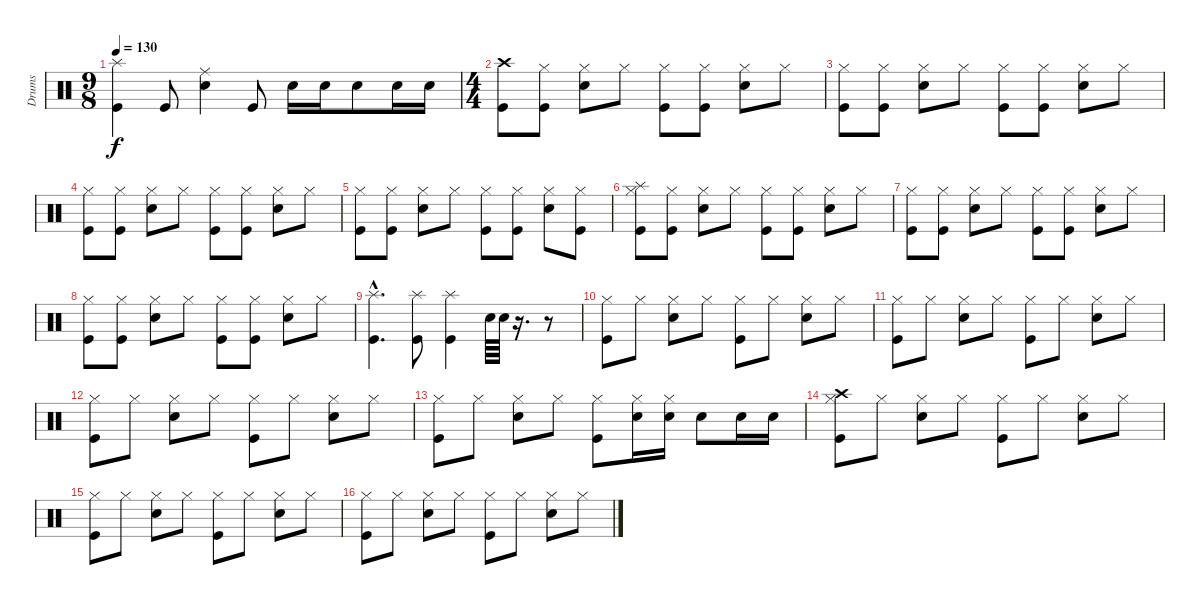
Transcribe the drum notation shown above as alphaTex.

\track ("Drums" "Drums") {instrument percussion}
\staff {score}
\articulation defaults
\ts (9 8)
\tempo 130
\clef neutral
\ks c
("Kick (hit)" "Splash (hit)").4{dy f} "Kick (hit)".8 ("Ride (middle)" "Snare (hit) 2").4 "Kick (hit)".8 "Snare (hit) 2".16 "Snare (hit) 2".16 "Snare (hit) 2".8 "Snare (hit) 2".16 "Snare (hit) 2".16 |
\ts (4 4)
("Kick (hit)" "Crash high (hit)").8 ("Hi-Hat (closed)" "Kick (hit)").8 ("Hi-Hat (closed)" "Snare (hit) 2").8 "Hi-Hat (closed)".8 ("Hi-Hat (closed)" "Kick (hit)").8 ("Hi-Hat (closed)" "Kick (hit)").8 ("Hi-Hat (closed)" "Snare (hit) 2").8 "Hi-Hat (closed)".8 |
("Hi-Hat (closed)" "Kick (hit)").8 ("Hi-Hat (closed)" "Kick (hit)").8 ("Hi-Hat (closed)" "Snare (hit) 2").8 "Hi-Hat (closed)".8 ("Hi-Hat (closed)" "Kick (hit)").8 ("Hi-Hat (closed)" "Kick (hit)").8 ("Hi-Hat (closed)" "Snare (hit) 2").8 "Hi-Hat (closed)".8 |
("Hi-Hat (closed)" "Kick (hit)").8 ("Hi-Hat (closed)" "Kick (hit)").8 ("Hi-Hat (closed)" "Snare (hit) 2").8 "Hi-Hat (closed)".8 ("Hi-Hat (closed)" "Kick (hit)").8 ("Hi-Hat (closed)" "Kick (hit)").8 ("Hi-Hat (closed)" "Snare (hit) 2").8 "Hi-Hat (closed)".8 |
("Hi-Hat (closed)" "Kick (hit)").8 ("Hi-Hat (closed)" "Kick (hit)").8 ("Hi-Hat (closed)" "Snare (hit) 2").8 "Hi-Hat (closed)".8 ("Hi-Hat (closed)" "Kick (hit)").8 ("Hi-Hat (closed)" "Kick (hit)").8 ("Hi-Hat (closed)" "Snare (hit) 2").8 ("Hi-Hat (closed)" "Kick (hit)").8 |
("Hi-Hat (closed)" "Kick (hit)" "Splash (hit)").8 ("Hi-Hat (closed)" "Kick (hit)").8 ("Hi-Hat (closed)" "Snare (hit) 2").8 "Hi-Hat (closed)".8 ("Hi-Hat (closed)" "Kick (hit)").8 ("Hi-Hat (closed)" "Kick (hit)").8 ("Hi-Hat (closed)" "Snare (hit) 2").8 "Hi-Hat (closed)".8 |
("Hi-Hat (closed)" "Kick (hit)").8 ("Hi-Hat (closed)" "Kick (hit)").8 ("Hi-Hat (closed)" "Snare (hit) 2").8 "Hi-Hat (closed)".8 ("Hi-Hat (closed)" "Kick (hit)").8 ("Hi-Hat (closed)" "Kick (hit)").8 ("Hi-Hat (closed)" "Snare (hit) 2").8 "Hi-Hat (closed)".8 |
("Hi-Hat (closed)" "Kick (hit)").8 ("Hi-Hat (closed)" "Kick (hit)").8 ("Hi-Hat (closed)" "Snare (hit) 2").8 "Hi-Hat (closed)".8 ("Hi-Hat (closed)" "Kick (hit)").8 ("Hi-Hat (closed)" "Kick (hit)").8 ("Hi-Hat (closed)" "Snare (hit) 2").8 "Hi-Hat (closed)".8 |
("Kick (hit)"{hac} "Splash (hit)"{hac}).4{d} ("Kick (hit)" "Splash (hit)").8 ("Kick (hit)" "Splash (hit)").4 "Snare (hit) 2".64 "Snare (hit) 2".64 r.16{d} r.8 |
("Hi-Hat (closed)" "Kick (hit)").8 "Hi-Hat (closed)".8 ("Hi-Hat (closed)" "Snare (hit) 2").8 "Hi-Hat (closed)".8 ("Hi-Hat (closed)" "Kick (hit)").8 "Hi-Hat (closed)".8 ("Hi-Hat (closed)" "Snare (hit) 2").8 "Hi-Hat (closed)".8 |
("Hi-Hat (closed)" "Kick (hit)").8 "Hi-Hat (closed)".8 ("Hi-Hat (closed)" "Snare (hit) 2").8 "Hi-Hat (closed)".8 ("Hi-Hat (closed)" "Kick (hit)").8 "Hi-Hat (closed)".8 ("Hi-Hat (closed)" "Snare (hit) 2").8 "Hi-Hat (closed)".8 |
("Hi-Hat (closed)" "Kick (hit)").8 "Hi-Hat (closed)".8 ("Hi-Hat (closed)" "Snare (hit) 2").8 "Hi-Hat (closed)".8 ("Hi-Hat (closed)" "Kick (hit)").8 "Hi-Hat (closed)".8 ("Hi-Hat (closed)" "Snare (hit) 2").8 "Hi-Hat (closed)".8 |
("Hi-Hat (closed)" "Kick (hit)").8 "Hi-Hat (closed)".8 ("Hi-Hat (closed)" "Snare (hit) 2").8 "Hi-Hat (closed)".8 ("Hi-Hat (closed)" "Kick (hit)").8 ("Hi-Hat (closed)" "Snare (hit) 2").16 ("Hi-Hat (closed)" "Snare (hit) 2").16 "Snare (hit) 2".8 "Snare (hit) 2".16 "Snare (hit) 2".16 |
("Hi-Hat (closed)" "Kick (hit)" "Crash high (hit)").8 "Hi-Hat (closed)".8 ("Hi-Hat (closed)" "Snare (hit) 2").8 "Hi-Hat (closed)".8 ("Hi-Hat (closed)" "Kick (hit)").8 "Hi-Hat (closed)".8 ("Hi-Hat (closed)" "Snare (hit) 2").8 "Hi-Hat (closed)".8 |
("Hi-Hat (closed)" "Kick (hit)").8 "Hi-Hat (closed)".8 ("Hi-Hat (closed)" "Snare (hit) 2").8 "Hi-Hat (closed)".8 ("Hi-Hat (closed)" "Kick (hit)").8 "Hi-Hat (closed)".8 ("Hi-Hat (closed)" "Snare (hit) 2").8 "Hi-Hat (closed)".8 |
("Hi-Hat (closed)" "Kick (hit)").8 "Hi-Hat (closed)".8 ("Hi-Hat (closed)" "Snare (hit) 2").8 "Hi-Hat (closed)".8 ("Hi-Hat (closed)" "Kick (hit)").8 "Hi-Hat (closed)".8 ("Hi-Hat (closed)" "Snare (hit) 2").8 "Hi-Hat (closed)".8
